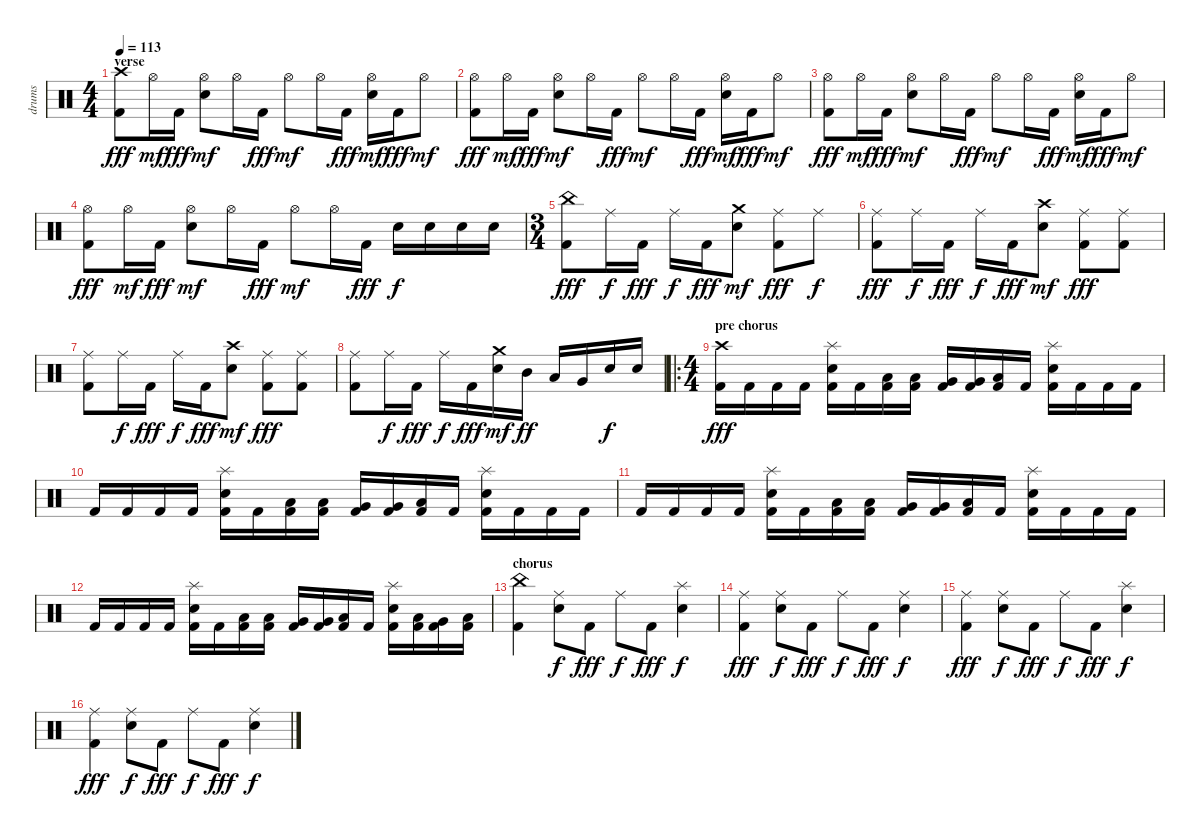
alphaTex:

\track ("drums" "drums") {instrument percussion}
\staff {score}
\articulation defaults
\ts (4 4)
\section ("" "verse")
\tempo 113
\clef neutral
\ks c
("Crash high (hit)" "Kick (hit) 2").8{dy fff} "Hi-Hat (open)".16{dy mf} "Kick (hit) 2".16{dy fff} ("Hi-Hat (open)" "Electric Snare (hit)").8{dy mf} "Hi-Hat (open)".16 "Kick (hit) 2".16{dy fff} "Hi-Hat (open)".8{dy mf} "Hi-Hat (open)".16 "Kick (hit) 2".16{dy fff} ("Hi-Hat (open)" "Electric Snare (hit)").16{dy mf} "Kick (hit) 2".16{dy fff} "Hi-Hat (open)".8{dy mf} |
("Hi-Hat (open)" "Kick (hit) 2").8{dy fff} "Hi-Hat (open)".16{dy mf} "Kick (hit) 2".16{dy fff} ("Hi-Hat (open)" "Electric Snare (hit)").8{dy mf} "Hi-Hat (open)".16 "Kick (hit) 2".16{dy fff} "Hi-Hat (open)".8{dy mf} "Hi-Hat (open)".16 "Kick (hit) 2".16{dy fff} ("Hi-Hat (open)" "Electric Snare (hit)").16{dy mf} "Kick (hit) 2".16{dy fff} "Hi-Hat (open)".8{dy mf} |
("Hi-Hat (open)" "Kick (hit) 2").8{dy fff} "Hi-Hat (open)".16{dy mf} "Kick (hit) 2".16{dy fff} ("Hi-Hat (open)" "Electric Snare (hit)").8{dy mf} "Hi-Hat (open)".16 "Kick (hit) 2".16{dy fff} "Hi-Hat (open)".8{dy mf} "Hi-Hat (open)".16 "Kick (hit) 2".16{dy fff} ("Hi-Hat (open)" "Electric Snare (hit)").16{dy mf} "Kick (hit) 2".16{dy fff} "Hi-Hat (open)".8{dy mf} |
("Hi-Hat (open)" "Kick (hit) 2").8{dy fff} "Hi-Hat (open)".16{dy mf} "Kick (hit) 2".16{dy fff} ("Hi-Hat (open)" "Electric Snare (hit)").8{dy mf} "Hi-Hat (open)".16 "Kick (hit) 2".16{dy fff} "Hi-Hat (open)".8{dy mf} "Hi-Hat (open)".16 "Kick (hit) 2".16{dy fff} "Electric Snare (hit)".16{dy f} "Electric Snare (hit)".16 "Electric Snare (hit)".16 "Electric Snare (hit)".16 |
\ts (3 4)
("China (hit)" "Kick (hit) 2").8{dy fff} "Ride (middle)".16{dy f} "Kick (hit) 2".16{dy fff} "Ride (middle)".16{dy f} "Kick (hit) 2".16{dy fff} ("Crash medium (hit)" "Electric Snare (hit)").8{dy mf} ("Ride (middle)" "Kick (hit) 2").8{dy fff} "Ride (middle)".8{dy f} |
("Ride (middle)" "Kick (hit) 2").8{dy fff} "Ride (middle)".16{dy f} "Kick (hit) 2".16{dy fff} "Ride (middle)".16{dy f} "Kick (hit) 2".16{dy fff} ("Crash high (hit)" "Electric Snare (hit)").8{dy mf} ("Ride (middle)" "Kick (hit) 2").8{dy fff} ("Ride (middle)" "Kick (hit) 2").8 |
("Ride (middle)" "Kick (hit) 2").8 "Ride (middle)".16{dy f} "Kick (hit) 2".16{dy fff} "Ride (middle)".16{dy f} "Kick (hit) 2".16{dy fff} ("Crash high (hit)" "Electric Snare (hit)").8{dy mf} ("Ride (middle)" "Kick (hit) 2").8{dy fff} ("Ride (middle)" "Kick (hit) 2").8 |
("Ride (middle)" "Kick (hit) 2").8 "Ride (middle)".16{dy f} "Kick (hit) 2".16{dy fff} "Ride (middle)".16{dy f} "Kick (hit) 2".16{dy fff} ("Crash medium (hit)" "Electric Snare (hit)").16{dy mf} "Mid Tom (hit)".16{dy ff} "Low Tom (hit)".16 "Very Low Tom (hit)".16 "Electric Snare (hit)".16{dy f} "Electric Snare (hit)".16 |
\ro
\ts (4 4)
\section ("" "pre chorus")
("Crash high (hit)" "Kick (hit) 2").16{dy fff} "Kick (hit) 2".16 "Kick (hit) 2".16 "Kick (hit) 2".16 ("Splash (hit)" "Electric Snare (hit)" "Kick (hit) 2").16 "Kick (hit) 2".16 ("Low Tom (hit)" "Kick (hit) 2").16 ("Low Tom (hit)" "Kick (hit) 2").16 ("Very Low Tom (hit)" "Kick (hit) 2").16 ("Very Low Tom (hit)" "Kick (hit) 2").16 ("Low Floor Tom (hit)" "Kick (hit) 2").16 "Kick (hit) 2".16 ("Splash (hit)" "Electric Snare (hit)" "Kick (hit) 2").16 "Kick (hit) 2".16 "Kick (hit) 2".16 "Kick (hit) 2".16 |
"Kick (hit) 2".16 "Kick (hit) 2".16 "Kick (hit) 2".16 "Kick (hit) 2".16 ("Splash (hit)" "Electric Snare (hit)" "Kick (hit) 2").16 "Kick (hit) 2".16 ("Low Tom (hit)" "Kick (hit) 2").16 ("Low Tom (hit)" "Kick (hit) 2").16 ("Very Low Tom (hit)" "Kick (hit) 2").16 ("Very Low Tom (hit)" "Kick (hit) 2").16 ("Low Floor Tom (hit)" "Kick (hit) 2").16 "Kick (hit) 2".16 ("Splash (hit)" "Electric Snare (hit)" "Kick (hit) 2").16 "Kick (hit) 2".16 "Kick (hit) 2".16 "Kick (hit) 2".16 |
"Kick (hit) 2".16 "Kick (hit) 2".16 "Kick (hit) 2".16 "Kick (hit) 2".16 ("Splash (hit)" "Electric Snare (hit)" "Kick (hit) 2").16 "Kick (hit) 2".16 ("Low Tom (hit)" "Kick (hit) 2").16 ("Low Tom (hit)" "Kick (hit) 2").16 ("Very Low Tom (hit)" "Kick (hit) 2").16 ("Very Low Tom (hit)" "Kick (hit) 2").16 ("Low Floor Tom (hit)" "Kick (hit) 2").16 "Kick (hit) 2".16 ("Splash (hit)" "Electric Snare (hit)" "Kick (hit) 2").16 "Kick (hit) 2".16 "Kick (hit) 2".16 "Kick (hit) 2".16 |
"Kick (hit) 2".16 "Kick (hit) 2".16 "Kick (hit) 2".16 "Kick (hit) 2".16 ("Splash (hit)" "Electric Snare (hit)" "Kick (hit) 2").16 "Kick (hit) 2".16 ("Low Tom (hit)" "Kick (hit) 2").16 ("Low Tom (hit)" "Kick (hit) 2").16 ("Very Low Tom (hit)" "Kick (hit) 2").16 ("Very Low Tom (hit)" "Kick (hit) 2").16 ("Low Floor Tom (hit)" "Kick (hit) 2").16 "Kick (hit) 2".16 ("Splash (hit)" "Electric Snare (hit)" "Kick (hit) 2").16 ("Low Tom (hit)" "Kick (hit) 2").16 ("Very Low Tom (hit)" "Kick (hit) 2").16 ("Low Floor Tom (hit)" "Kick (hit) 2").16 |
\section ("" "chorus")
("China (hit)" "Kick (hit) 2").4 ("Ride (middle)" "Electric Snare (hit)").8{dy f} "Kick (hit) 2".8{dy fff} "Ride (middle)".8{dy f} "Kick (hit) 2".8{dy fff} ("Splash (hit)" "Electric Snare (hit)").4{dy f} |
("Ride (middle)" "Kick (hit) 2").4{dy fff} ("Ride (middle)" "Electric Snare (hit)").8{dy f} "Kick (hit) 2".8{dy fff} "Ride (middle)".8{dy f} "Kick (hit) 2".8{dy fff} ("Ride (middle)" "Electric Snare (hit)").4{dy f} |
("Ride (middle)" "Kick (hit) 2").4{dy fff} ("Ride (middle)" "Electric Snare (hit)").8{dy f} "Kick (hit) 2".8{dy fff} "Ride (middle)".8{dy f} "Kick (hit) 2".8{dy fff} ("Splash (hit)" "Electric Snare (hit)").4{dy f} |
("Ride (middle)" "Kick (hit) 2").4{dy fff} ("Ride (middle)" "Electric Snare (hit)").8{dy f} "Kick (hit) 2".8{dy fff} "Ride (middle)".8{dy f} "Kick (hit) 2".8{dy fff} ("Ride (middle)" "Electric Snare (hit)").4{dy f}
